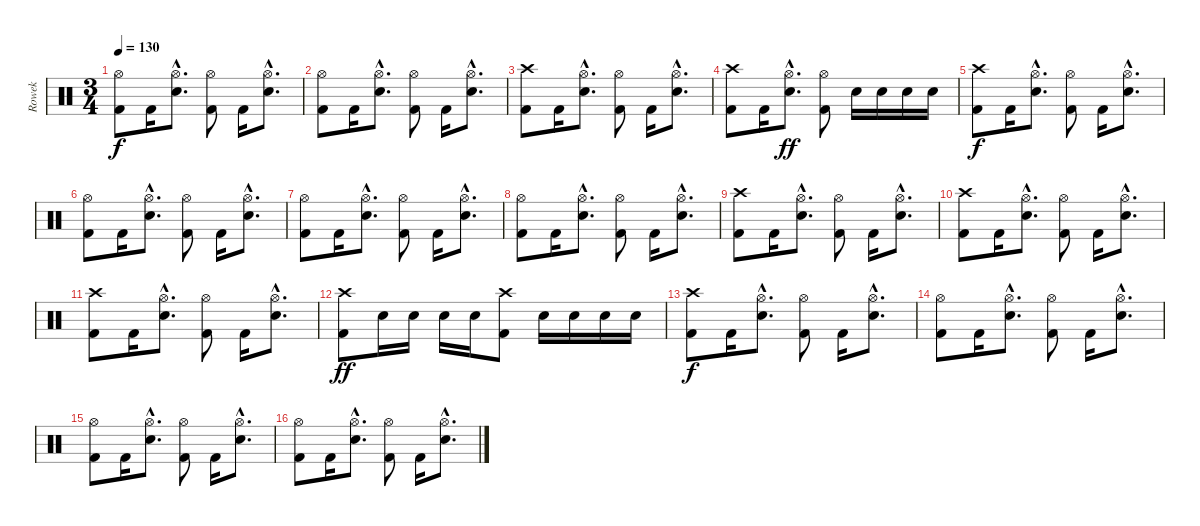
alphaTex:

\track ("Rowek" "Rowek") {instrument percussion}
\staff {score}
\articulation defaults
\ts (3 4)
\tempo 130
\clef neutral
\ks c
("Hi-Hat (open)" "Kick (hit) 2").8{dy f} "Kick (hit) 2".16 ("Hi-Hat (open)"{hac} "Snare (hit) 2"{hac}).8{d} ("Hi-Hat (open)" "Kick (hit) 2").8 "Kick (hit) 2".16 ("Hi-Hat (open)"{hac} "Snare (hit) 2"{hac}).8{d} |
("Hi-Hat (open)" "Kick (hit) 2").8 "Kick (hit) 2".16 ("Hi-Hat (open)"{hac} "Snare (hit) 2"{hac}).8{d} ("Hi-Hat (open)" "Kick (hit) 2").8 "Kick (hit) 2".16 ("Hi-Hat (open)"{hac} "Snare (hit) 2"{hac}).8{d} |
("Crash high (hit)" "Kick (hit) 2").8 "Kick (hit) 2".16 ("Hi-Hat (open)"{hac} "Snare (hit) 2"{hac}).8{d} ("Hi-Hat (open)" "Kick (hit) 2").8 "Kick (hit) 2".16 ("Hi-Hat (open)"{hac} "Snare (hit) 2"{hac}).8{d} |
("Crash high (hit)" "Kick (hit) 2").8 "Kick (hit) 2".16 ("Hi-Hat (open)"{hac} "Snare (hit) 2"{hac}).8{d dy ff} ("Hi-Hat (open)" "Kick (hit) 2").8 "Electric Snare (hit)".16 "Electric Snare (hit)".16 "Electric Snare (hit)".16 "Electric Snare (hit)".16 |
("Crash high (hit)" "Kick (hit) 2").8{dy f} "Kick (hit) 2".16 ("Hi-Hat (open)"{hac} "Snare (hit) 2"{hac}).8{d} ("Hi-Hat (open)" "Kick (hit) 2").8 "Kick (hit) 2".16 ("Hi-Hat (open)"{hac} "Snare (hit) 2"{hac}).8{d} |
("Hi-Hat (open)" "Kick (hit) 2").8 "Kick (hit) 2".16 ("Hi-Hat (open)"{hac} "Snare (hit) 2"{hac}).8{d} ("Hi-Hat (open)" "Kick (hit) 2").8 "Kick (hit) 2".16 ("Hi-Hat (open)"{hac} "Snare (hit) 2"{hac}).8{d} |
("Hi-Hat (open)" "Kick (hit) 2").8 "Kick (hit) 2".16 ("Hi-Hat (open)"{hac} "Snare (hit) 2"{hac}).8{d} ("Hi-Hat (open)" "Kick (hit) 2").8 "Kick (hit) 2".16 ("Hi-Hat (open)"{hac} "Snare (hit) 2"{hac}).8{d} |
("Hi-Hat (open)" "Kick (hit) 2").8 "Kick (hit) 2".16 ("Hi-Hat (open)"{hac} "Snare (hit) 2"{hac}).8{d} ("Hi-Hat (open)" "Kick (hit) 2").8 "Kick (hit) 2".16 ("Hi-Hat (open)"{hac} "Snare (hit) 2"{hac}).8{d} |
("Crash high (hit)" "Kick (hit) 2").8 "Kick (hit) 2".16 ("Hi-Hat (open)"{hac} "Snare (hit) 2"{hac}).8{d} ("Hi-Hat (open)" "Kick (hit) 2").8 "Kick (hit) 2".16 ("Hi-Hat (open)"{hac} "Snare (hit) 2"{hac}).8{d} |
("Crash high (hit)" "Kick (hit) 2").8 "Kick (hit) 2".16 ("Hi-Hat (open)"{hac} "Snare (hit) 2"{hac}).8{d} ("Hi-Hat (open)" "Kick (hit) 2").8 "Kick (hit) 2".16 ("Hi-Hat (open)"{hac} "Snare (hit) 2"{hac}).8{d} |
("Crash high (hit)" "Kick (hit) 2").8 "Kick (hit) 2".16 ("Hi-Hat (open)"{hac} "Snare (hit) 2"{hac}).8{d} ("Hi-Hat (open)" "Kick (hit) 2").8 "Kick (hit) 2".16 ("Hi-Hat (open)"{hac} "Snare (hit) 2"{hac}).8{d} |
("Kick (hit) 2" "Crash high (hit)").8{dy ff} "Electric Snare (hit)".16 "Electric Snare (hit)".16 "Electric Snare (hit)".16 "Electric Snare (hit)".16 ("Kick (hit) 2" "Crash high (hit)").8 "Electric Snare (hit)".16 "Electric Snare (hit)".16 "Electric Snare (hit)".16 "Electric Snare (hit)".16 |
("Crash high (hit)" "Kick (hit) 2").8{dy f} "Kick (hit) 2".16 ("Hi-Hat (open)"{hac} "Snare (hit) 2"{hac}).8{d} ("Hi-Hat (open)" "Kick (hit) 2").8 "Kick (hit) 2".16 ("Hi-Hat (open)"{hac} "Snare (hit) 2"{hac}).8{d} |
("Hi-Hat (open)" "Kick (hit) 2").8 "Kick (hit) 2".16 ("Hi-Hat (open)"{hac} "Snare (hit) 2"{hac}).8{d} ("Hi-Hat (open)" "Kick (hit) 2").8 "Kick (hit) 2".16 ("Hi-Hat (open)"{hac} "Snare (hit) 2"{hac}).8{d} |
("Hi-Hat (open)" "Kick (hit) 2").8 "Kick (hit) 2".16 ("Hi-Hat (open)"{hac} "Snare (hit) 2"{hac}).8{d} ("Hi-Hat (open)" "Kick (hit) 2").8 "Kick (hit) 2".16 ("Hi-Hat (open)"{hac} "Snare (hit) 2"{hac}).8{d} |
("Hi-Hat (open)" "Kick (hit) 2").8 "Kick (hit) 2".16 ("Hi-Hat (open)"{hac} "Snare (hit) 2"{hac}).8{d} ("Hi-Hat (open)" "Kick (hit) 2").8 "Kick (hit) 2".16 ("Hi-Hat (open)"{hac} "Snare (hit) 2"{hac}).8{d}
